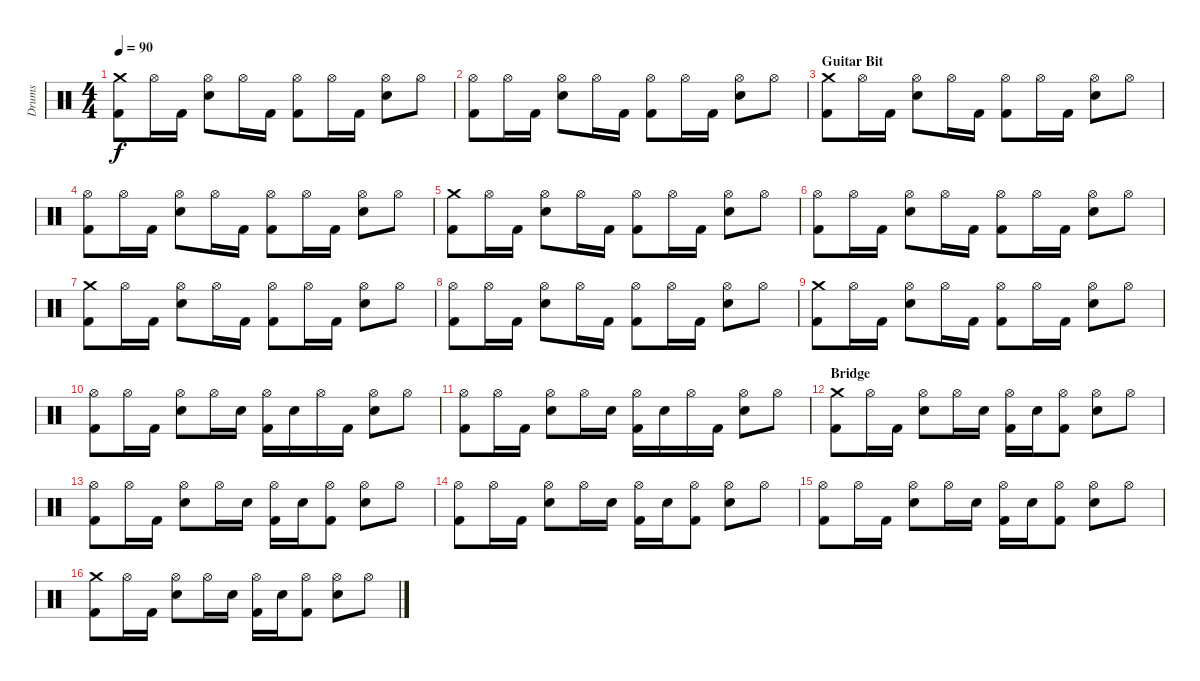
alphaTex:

\track ("Drums" "Drums") {instrument percussion}
\staff {score}
\articulation defaults
\ts (4 4)
\tempo 90
\clef neutral
\ks c
("Crash medium (hit)" "Kick (hit) 2").8{dy f} "Hi-Hat (open)".16 "Kick (hit) 2".16 ("Hi-Hat (open)" "Electric Snare (hit)").8 "Hi-Hat (open)".16 "Kick (hit) 2".16 ("Hi-Hat (open)" "Kick (hit) 2").8 "Hi-Hat (open)".16 "Kick (hit) 2".16 ("Hi-Hat (open)" "Electric Snare (hit)").8 "Hi-Hat (open)".8 |
("Hi-Hat (open)" "Kick (hit) 2").8 "Hi-Hat (open)".16 "Kick (hit) 2".16 ("Hi-Hat (open)" "Electric Snare (hit)").8 "Hi-Hat (open)".16 "Kick (hit) 2".16 ("Hi-Hat (open)" "Kick (hit) 2").8 "Hi-Hat (open)".16 "Kick (hit) 2".16 ("Hi-Hat (open)" "Electric Snare (hit)").8 "Hi-Hat (open)".8 |
\section ("" "Guitar Bit")
("Crash medium (hit)" "Kick (hit) 2").8 "Hi-Hat (open)".16 "Kick (hit) 2".16 ("Hi-Hat (open)" "Electric Snare (hit)").8 "Hi-Hat (open)".16 "Kick (hit) 2".16 ("Hi-Hat (open)" "Kick (hit) 2").8 "Hi-Hat (open)".16 "Kick (hit) 2".16 ("Hi-Hat (open)" "Electric Snare (hit)").8 "Hi-Hat (open)".8 |
("Hi-Hat (open)" "Kick (hit) 2").8 "Hi-Hat (open)".16 "Kick (hit) 2".16 ("Hi-Hat (open)" "Electric Snare (hit)").8 "Hi-Hat (open)".16 "Kick (hit) 2".16 ("Hi-Hat (open)" "Kick (hit) 2").8 "Hi-Hat (open)".16 "Kick (hit) 2".16 ("Hi-Hat (open)" "Electric Snare (hit)").8 "Hi-Hat (open)".8 |
("Crash medium (hit)" "Kick (hit) 2").8 "Hi-Hat (open)".16 "Kick (hit) 2".16 ("Hi-Hat (open)" "Electric Snare (hit)").8 "Hi-Hat (open)".16 "Kick (hit) 2".16 ("Hi-Hat (open)" "Kick (hit) 2").8 "Hi-Hat (open)".16 "Kick (hit) 2".16 ("Hi-Hat (open)" "Electric Snare (hit)").8 "Hi-Hat (open)".8 |
("Hi-Hat (open)" "Kick (hit) 2").8 "Hi-Hat (open)".16 "Kick (hit) 2".16 ("Hi-Hat (open)" "Electric Snare (hit)").8 "Hi-Hat (open)".16 "Kick (hit) 2".16 ("Hi-Hat (open)" "Kick (hit) 2").8 "Hi-Hat (open)".16 "Kick (hit) 2".16 ("Hi-Hat (open)" "Electric Snare (hit)").8 "Hi-Hat (open)".8 |
("Crash medium (hit)" "Kick (hit) 2").8 "Hi-Hat (open)".16 "Kick (hit) 2".16 ("Hi-Hat (open)" "Electric Snare (hit)").8 "Hi-Hat (open)".16 "Kick (hit) 2".16 ("Hi-Hat (open)" "Kick (hit) 2").8 "Hi-Hat (open)".16 "Kick (hit) 2".16 ("Hi-Hat (open)" "Electric Snare (hit)").8 "Hi-Hat (open)".8 |
("Hi-Hat (open)" "Kick (hit) 2").8 "Hi-Hat (open)".16 "Kick (hit) 2".16 ("Hi-Hat (open)" "Electric Snare (hit)").8 "Hi-Hat (open)".16 "Kick (hit) 2".16 ("Hi-Hat (open)" "Kick (hit) 2").8 "Hi-Hat (open)".16 "Kick (hit) 2".16 ("Hi-Hat (open)" "Electric Snare (hit)").8 "Hi-Hat (open)".8 |
("Crash medium (hit)" "Kick (hit) 2").8 "Hi-Hat (open)".16 "Kick (hit) 2".16 ("Hi-Hat (open)" "Electric Snare (hit)").8 "Hi-Hat (open)".16 "Kick (hit) 2".16 ("Hi-Hat (open)" "Kick (hit) 2").8 "Hi-Hat (open)".16 "Kick (hit) 2".16 ("Hi-Hat (open)" "Electric Snare (hit)").8 "Hi-Hat (open)".8 |
("Hi-Hat (open)" "Kick (hit) 2").8 "Hi-Hat (open)".16 "Kick (hit) 2".16 ("Hi-Hat (open)" "Electric Snare (hit)").8 "Hi-Hat (open)".16 "Electric Snare (hit)".16 ("Hi-Hat (open)" "Kick (hit) 2").16 "Electric Snare (hit)".16 "Hi-Hat (open)".16 "Kick (hit) 2".16 ("Hi-Hat (open)" "Electric Snare (hit)").8 "Hi-Hat (open)".8 |
("Hi-Hat (open)" "Kick (hit) 2").8 "Hi-Hat (open)".16 "Kick (hit) 2".16 ("Hi-Hat (open)" "Electric Snare (hit)").8 "Hi-Hat (open)".16 "Electric Snare (hit)".16 ("Hi-Hat (open)" "Kick (hit) 2").16 "Electric Snare (hit)".16 "Hi-Hat (open)".16 "Kick (hit) 2".16 ("Hi-Hat (open)" "Electric Snare (hit)").8 "Hi-Hat (open)".8 |
\section ("" "Bridge")
("Crash medium (hit)" "Kick (hit) 2").8 "Hi-Hat (open)".16 "Kick (hit) 2".16 ("Hi-Hat (open)" "Electric Snare (hit)").8 "Hi-Hat (open)".16 "Electric Snare (hit)".16 ("Hi-Hat (open)" "Kick (hit) 2").16 "Electric Snare (hit)".16 ("Hi-Hat (open)" "Kick (hit) 2").8 ("Hi-Hat (open)" "Electric Snare (hit)").8 "Hi-Hat (open)".8 |
("Hi-Hat (open)" "Kick (hit) 2").8 "Hi-Hat (open)".16 "Kick (hit) 2".16 ("Hi-Hat (open)" "Electric Snare (hit)").8 "Hi-Hat (open)".16 "Electric Snare (hit)".16 ("Hi-Hat (open)" "Kick (hit) 2").16 "Electric Snare (hit)".16 ("Hi-Hat (open)" "Kick (hit) 2").8 ("Hi-Hat (open)" "Electric Snare (hit)").8 "Hi-Hat (open)".8 |
("Hi-Hat (open)" "Kick (hit) 2").8 "Hi-Hat (open)".16 "Kick (hit) 2".16 ("Hi-Hat (open)" "Electric Snare (hit)").8 "Hi-Hat (open)".16 "Electric Snare (hit)".16 ("Hi-Hat (open)" "Kick (hit) 2").16 "Electric Snare (hit)".16 ("Hi-Hat (open)" "Kick (hit) 2").8 ("Hi-Hat (open)" "Electric Snare (hit)").8 "Hi-Hat (open)".8 |
("Hi-Hat (open)" "Kick (hit) 2").8 "Hi-Hat (open)".16 "Kick (hit) 2".16 ("Hi-Hat (open)" "Electric Snare (hit)").8 "Hi-Hat (open)".16 "Electric Snare (hit)".16 ("Hi-Hat (open)" "Kick (hit) 2").16 "Electric Snare (hit)".16 ("Hi-Hat (open)" "Kick (hit) 2").8 ("Hi-Hat (open)" "Electric Snare (hit)").8 "Hi-Hat (open)".8 |
("Crash medium (hit)" "Kick (hit) 2").8 "Hi-Hat (open)".16 "Kick (hit) 2".16 ("Hi-Hat (open)" "Electric Snare (hit)").8 "Hi-Hat (open)".16 "Electric Snare (hit)".16 ("Hi-Hat (open)" "Kick (hit) 2").16 "Electric Snare (hit)".16 ("Hi-Hat (open)" "Kick (hit) 2").8 ("Hi-Hat (open)" "Electric Snare (hit)").8 "Hi-Hat (open)".8
